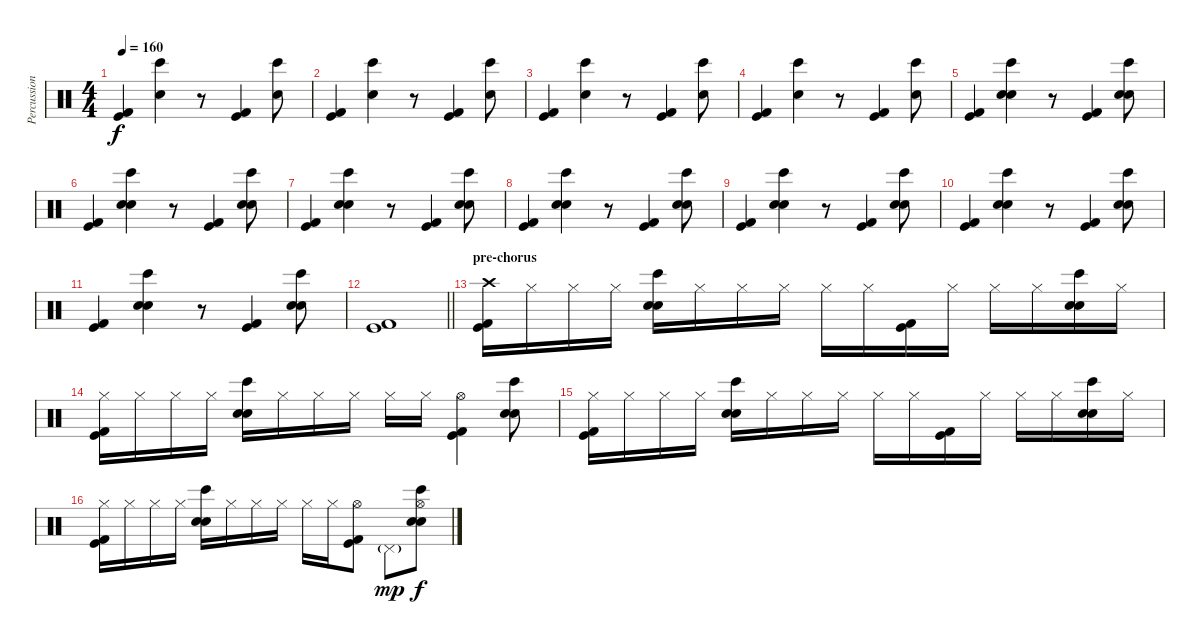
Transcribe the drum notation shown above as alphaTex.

\track ("Percussion" "Percussion") {instrument percussion}
\staff {score}
\articulation defaults
\ts (4 4)
\tempo 160
\clef neutral
\ks c
("Kick (hit)" "Kick (hit) 2").4{dy f} ("Hand Clap (hit)" "Bongo High (hit)").4 r.8 ("Kick (hit)" "Kick (hit) 2").4 ("Hand Clap (hit)" "Bongo High (hit)").8 |
("Kick (hit)" "Kick (hit) 2").4 ("Hand Clap (hit)" "Bongo High (hit)").4 r.8 ("Kick (hit)" "Kick (hit) 2").4 ("Hand Clap (hit)" "Bongo High (hit)").8 |
("Kick (hit)" "Kick (hit) 2").4 ("Hand Clap (hit)" "Bongo High (hit)").4 r.8 ("Kick (hit)" "Kick (hit) 2").4 ("Hand Clap (hit)" "Bongo High (hit)").8 |
("Kick (hit)" "Kick (hit) 2").4 ("Hand Clap (hit)" "Bongo High (hit)").4 r.8 ("Kick (hit)" "Kick (hit) 2").4 ("Hand Clap (hit)" "Bongo High (hit)").8 |
("Kick (hit)" "Kick (hit) 2").4 ("Hand Clap (hit)" "Bongo High (hit)" "Electric Snare (hit)").4 r.8 ("Kick (hit)" "Kick (hit) 2").4 ("Hand Clap (hit)" "Bongo High (hit)" "Electric Snare (hit)").8 |
("Kick (hit)" "Kick (hit) 2").4 ("Hand Clap (hit)" "Bongo High (hit)" "Electric Snare (hit)").4 r.8 ("Kick (hit)" "Kick (hit) 2").4 ("Hand Clap (hit)" "Bongo High (hit)" "Electric Snare (hit)").8 |
("Kick (hit)" "Kick (hit) 2").4 ("Hand Clap (hit)" "Bongo High (hit)" "Electric Snare (hit)").4 r.8 ("Kick (hit)" "Kick (hit) 2").4 ("Hand Clap (hit)" "Bongo High (hit)" "Electric Snare (hit)").8 |
("Kick (hit)" "Kick (hit) 2").4 ("Hand Clap (hit)" "Bongo High (hit)" "Electric Snare (hit)").4 r.8 ("Kick (hit)" "Kick (hit) 2").4 ("Hand Clap (hit)" "Bongo High (hit)" "Electric Snare (hit)").8 |
("Kick (hit)" "Kick (hit) 2").4 ("Hand Clap (hit)" "Bongo High (hit)" "Electric Snare (hit)").4 r.8 ("Kick (hit)" "Kick (hit) 2").4 ("Hand Clap (hit)" "Bongo High (hit)" "Electric Snare (hit)").8 |
("Kick (hit)" "Kick (hit) 2").4 ("Hand Clap (hit)" "Bongo High (hit)" "Electric Snare (hit)").4 r.8 ("Kick (hit)" "Kick (hit) 2").4 ("Hand Clap (hit)" "Bongo High (hit)" "Electric Snare (hit)").8 |
("Kick (hit)" "Kick (hit) 2").4 ("Hand Clap (hit)" "Bongo High (hit)" "Electric Snare (hit)").4 r.8 ("Kick (hit)" "Kick (hit) 2").4 ("Hand Clap (hit)" "Bongo High (hit)" "Electric Snare (hit)").8 |
\barLineRight lightlight
("Kick (hit)" "Kick (hit) 2").1 |
\section ("" "pre-chorus")
("Crash high (hit)" "Kick (hit)" "Kick (hit) 2").16 "Hi-Hat (closed)".16 "Hi-Hat (closed)".16 "Hi-Hat (closed)".16 ("Hand Clap (hit)" "Bongo High (hit)" "Electric Snare (hit)").16 "Hi-Hat (closed)".16 "Hi-Hat (closed)".16 "Hi-Hat (closed)".16 "Hi-Hat (closed)".16 "Hi-Hat (closed)".16 ("Kick (hit)" "Kick (hit) 2").16 "Hi-Hat (closed)".16 "Hi-Hat (closed)".16 "Hi-Hat (closed)".16 ("Hand Clap (hit)" "Bongo High (hit)" "Electric Snare (hit)").16 "Hi-Hat (closed)".16 |
("Hi-Hat (closed)" "Kick (hit)" "Kick (hit) 2").16 "Hi-Hat (closed)".16 "Hi-Hat (closed)".16 "Hi-Hat (closed)".16 ("Hand Clap (hit)" "Bongo High (hit)" "Electric Snare (hit)").16 "Hi-Hat (closed)".16 "Hi-Hat (closed)".16 "Hi-Hat (closed)".16 "Hi-Hat (closed)".16 "Hi-Hat (closed)".16 ("Hi-Hat (open)" "Kick (hit)" "Kick (hit) 2").4 ("Hand Clap (hit)" "Bongo High (hit)" "Electric Snare (hit)").8 |
("Hi-Hat (closed)" "Kick (hit)" "Kick (hit) 2").16 "Hi-Hat (closed)".16 "Hi-Hat (closed)".16 "Hi-Hat (closed)".16 ("Hand Clap (hit)" "Bongo High (hit)" "Electric Snare (hit)").16 "Hi-Hat (closed)".16 "Hi-Hat (closed)".16 "Hi-Hat (closed)".16 "Hi-Hat (closed)".16 "Hi-Hat (closed)".16 ("Kick (hit)" "Kick (hit) 2").16 "Hi-Hat (closed)".16 "Hi-Hat (closed)".16 "Hi-Hat (closed)".16 ("Hand Clap (hit)" "Bongo High (hit)" "Electric Snare (hit)").16 "Hi-Hat (closed)".16 |
("Hi-Hat (closed)" "Kick (hit)" "Kick (hit) 2").16 "Hi-Hat (closed)".16 "Hi-Hat (closed)".16 "Hi-Hat (closed)".16 ("Hand Clap (hit)" "Bongo High (hit)" "Electric Snare (hit)").16 "Hi-Hat (closed)".16 "Hi-Hat (closed)".16 "Hi-Hat (closed)".16 "Hi-Hat (closed)".16 "Hi-Hat (closed)".16 ("Hi-Hat (open)" "Kick (hit)" "Kick (hit) 2").8 "Pedal Hi-Hat (hit)"{g}.8{dy mp} ("Hi-Hat (open)" "Hand Clap (hit)" "Bongo High (hit)" "Electric Snare (hit)").8{dy f}
